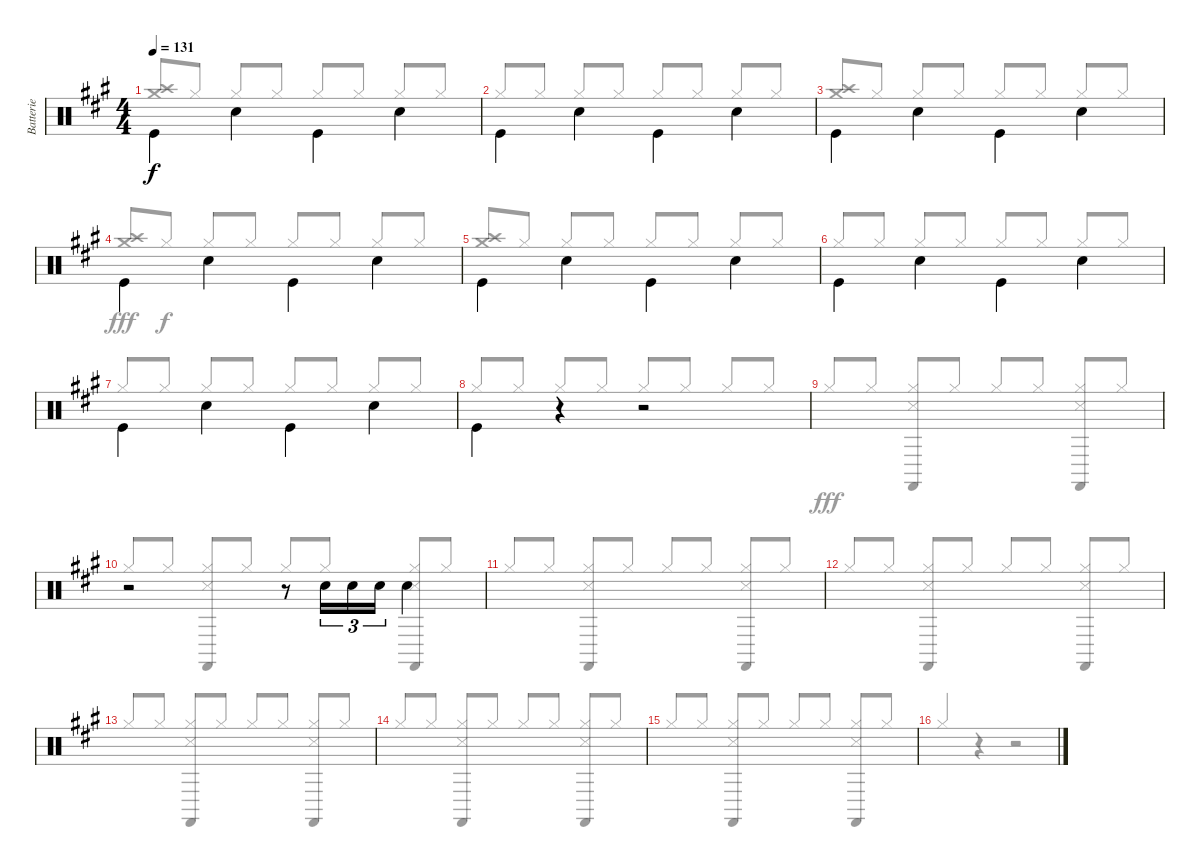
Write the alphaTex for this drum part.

\track ("Batterie" "Batterie") {instrument percussion}
\staff {score}
\articulation defaults
\voice
\ts (4 4)
\tempo 131
\clef neutral
\ks a "Kick (hit)".4{dy f beam Down} "Snare (hit) 2".4{beam Down} "Kick (hit)".4{beam Down} "Snare (hit) 2".4{beam Down}
|
"Kick (hit)".4{beam Down} "Snare (hit) 2".4{beam Down} "Kick (hit)".4{beam Down} "Snare (hit) 2".4{beam Down} |
"Kick (hit)".4{beam Down} "Snare (hit) 2".4{beam Down} "Kick (hit)".4{beam Down} "Snare (hit) 2".4{beam Down} |
"Kick (hit)".4{beam Down} "Snare (hit) 2".4{beam Down} "Kick (hit)".4{beam Down} "Snare (hit) 2".4{beam Down} |
"Kick (hit)".4{beam Down} "Snare (hit) 2".4{beam Down} "Kick (hit)".4{beam Down} "Snare (hit) 2".4{beam Down} |
"Kick (hit)".4{beam Down} "Snare (hit) 2".4{beam Down} "Kick (hit)".4{beam Down} "Snare (hit) 2".4{beam Down} |
"Kick (hit)".4{beam Down} "Snare (hit) 2".4{beam Down} "Kick (hit)".4{beam Down} "Snare (hit) 2".4{beam Down} |
"Kick (hit)".4{beam Down} r.4{beam Down} r.2 |
|
r.2 r.8 "Snare (hit) 2".16{tu (3 2) beam Down} "Snare (hit) 2".16{tu (3 2) beam Down} "Snare (hit) 2".16{tu (3 2) beam Down} "Snare (hit) 2".4{beam Down} |
|
|
|
|
|
\voice
\clef neutral
\ottava regular
\simile none
\ks a
("Crash medium (hit)" "Crash high (hit)").8{dy f beam Up} "Hi-Hat (closed)".8{beam Up} "Hi-Hat (closed)".8{beam Up} "Hi-Hat (closed)".8{beam Up} "Hi-Hat (closed)".8{beam Up} "Hi-Hat (closed)".8{beam Up} "Hi-Hat (closed)".8{beam Up} "Hi-Hat (closed)".8{beam Up} |
"Hi-Hat (closed)".8{beam Up} "Hi-Hat (closed)".8{beam Up} "Hi-Hat (closed)".8{beam Up} "Hi-Hat (closed)".8{beam Up} "Hi-Hat (closed)".8{beam Up} "Hi-Hat (closed)".8{beam Up} "Hi-Hat (closed)".8{beam Up} "Hi-Hat (closed)".8{beam Up} |
("Crash medium (hit)" "Crash high (hit)").8{beam Up} "Hi-Hat (closed)".8{beam Up} "Hi-Hat (closed)".8{beam Up} "Hi-Hat (closed)".8{beam Up} "Hi-Hat (closed)".8{beam Up} "Hi-Hat (closed)".8{beam Up} "Hi-Hat (closed)".8{beam Up} "Hi-Hat (closed)".8{beam Up} |
("Crash medium (hit)" "Crash high (hit)").8{dy fff beam Up} "Hi-Hat (closed)".8{dy f beam Up} "Hi-Hat (closed)".8{beam Up} "Hi-Hat (closed)".8{beam Up} "Hi-Hat (closed)".8{beam Up} "Hi-Hat (closed)".8{beam Up} "Hi-Hat (closed)".8{beam Up} "Hi-Hat (closed)".8{beam Up} |
("Crash medium (hit)" "Crash high (hit)").8{beam Up} "Hi-Hat (closed)".8{beam Up} "Hi-Hat (closed)".8{beam Up} "Hi-Hat (closed)".8{beam Up} "Hi-Hat (closed)".8{beam Up} "Hi-Hat (closed)".8{beam Up} "Hi-Hat (closed)".8{beam Up} "Hi-Hat (closed)".8{beam Up} |
"Hi-Hat (closed)".8{beam Up} "Hi-Hat (closed)".8{beam Up} "Hi-Hat (closed)".8{beam Up} "Hi-Hat (closed)".8{beam Up} "Hi-Hat (closed)".8{beam Up} "Hi-Hat (closed)".8{beam Up} "Hi-Hat (closed)".8{beam Up} "Hi-Hat (closed)".8{beam Up} |
"Hi-Hat (closed)".8{beam Up} "Hi-Hat (closed)".8{beam Up} "Hi-Hat (closed)".8{beam Up} "Hi-Hat (closed)".8{beam Up} "Hi-Hat (closed)".8{beam Up} "Hi-Hat (closed)".8{beam Up} "Hi-Hat (closed)".8{beam Up} "Hi-Hat (closed)".8{beam Up} |
"Hi-Hat (closed)".8{beam Up} "Hi-Hat (closed)".8{beam Up} "Hi-Hat (closed)".8{beam Up} "Hi-Hat (closed)".8{beam Up} "Hi-Hat (closed)".8{beam Up} "Hi-Hat (closed)".8{beam Up} "Hi-Hat (closed)".8{beam Up} "Hi-Hat (closed)".8{beam Up} |
"Hi-Hat (closed)".8{dy fff beam Up} "Hi-Hat (closed)".8 ("Castanets (hit)" "Metronome (hit)" "Hi-Hat (closed)").8{beam Up} "Hi-Hat (closed)".8{beam Up} "Hi-Hat (closed)".8{beam Up} "Hi-Hat (closed)".8{beam Up} ("Castanets (hit)" "Metronome (hit)" "Hi-Hat (closed)").8{beam Up} "Hi-Hat (closed)".8{beam Up} |
"Hi-Hat (closed)".8{beam Up} "Hi-Hat (closed)".8 ("Castanets (hit)" "Metronome (hit)" "Hi-Hat (closed)").8{beam Up} "Hi-Hat (closed)".8{beam Up} "Hi-Hat (closed)".8{beam Up} "Hi-Hat (closed)".8{beam Up} ("Castanets (hit)" "Metronome (hit)" "Hi-Hat (closed)").8{beam Up} "Hi-Hat (closed)".8{beam Up} |
"Hi-Hat (closed)".8{beam Up} "Hi-Hat (closed)".8 ("Castanets (hit)" "Metronome (hit)" "Hi-Hat (closed)").8{beam Up} "Hi-Hat (closed)".8{beam Up} "Hi-Hat (closed)".8{beam Up} "Hi-Hat (closed)".8{beam Up} ("Castanets (hit)" "Metronome (hit)" "Hi-Hat (closed)").8{beam Up} "Hi-Hat (closed)".8{beam Up} |
"Hi-Hat (closed)".8{beam Up} "Hi-Hat (closed)".8 ("Castanets (hit)" "Metronome (hit)" "Hi-Hat (closed)").8{beam Up} "Hi-Hat (closed)".8{beam Up} "Hi-Hat (closed)".8{beam Up} "Hi-Hat (closed)".8{beam Up} ("Castanets (hit)" "Metronome (hit)" "Hi-Hat (closed)").8{beam Up} "Hi-Hat (closed)".8{beam Up} |
"Hi-Hat (closed)".8{beam Up} "Hi-Hat (closed)".8 ("Castanets (hit)" "Metronome (hit)" "Hi-Hat (closed)").8{beam Up} "Hi-Hat (closed)".8{beam Up} "Hi-Hat (closed)".8{beam Up} "Hi-Hat (closed)".8{beam Up} ("Castanets (hit)" "Metronome (hit)" "Hi-Hat (closed)").8{beam Up} "Hi-Hat (closed)".8{beam Up} |
"Hi-Hat (closed)".8{beam Up} "Hi-Hat (closed)".8 ("Castanets (hit)" "Metronome (hit)" "Hi-Hat (closed)").8{beam Up} "Hi-Hat (closed)".8{beam Up} "Hi-Hat (closed)".8{beam Up} "Hi-Hat (closed)".8{beam Up} ("Castanets (hit)" "Metronome (hit)" "Hi-Hat (closed)").8{beam Up} "Hi-Hat (closed)".8{beam Up} |
"Hi-Hat (closed)".8{beam Up} "Hi-Hat (closed)".8 ("Castanets (hit)" "Metronome (hit)" "Hi-Hat (closed)").8{beam Up} "Hi-Hat (closed)".8{beam Up} "Hi-Hat (closed)".8{beam Up} "Hi-Hat (closed)".8{beam Up} ("Castanets (hit)" "Metronome (hit)" "Hi-Hat (closed)").8{beam Up} "Hi-Hat (closed)".8{beam Up} |
"Hi-Hat (closed)".4{beam Up} r.4 r.2
